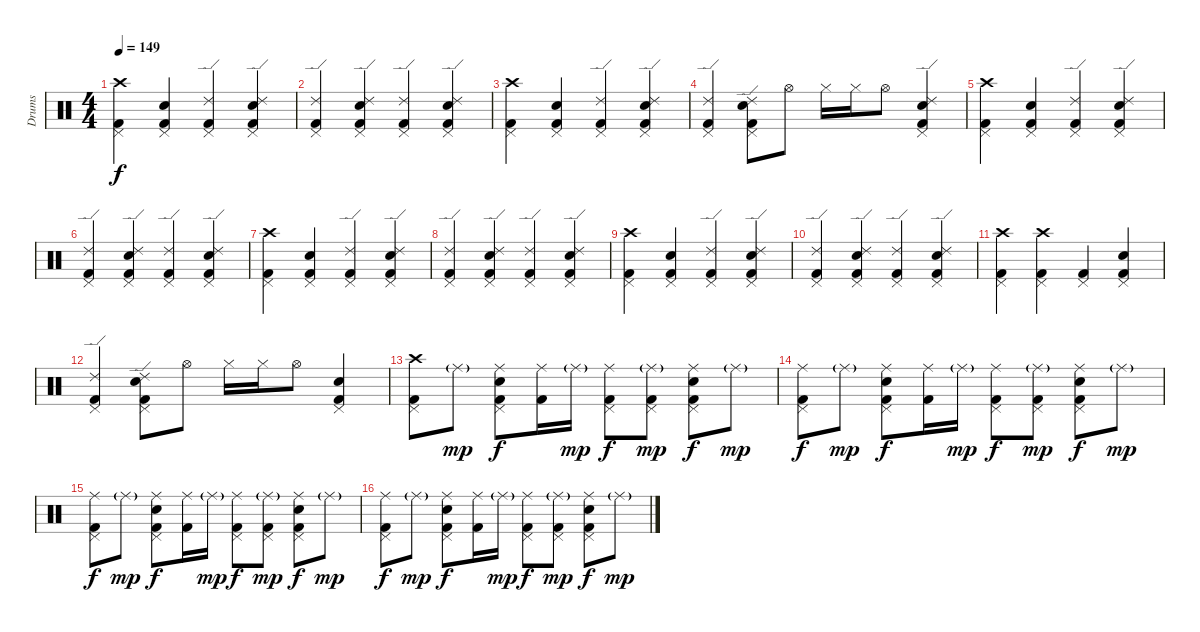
\track ("Drums" "Drums") {instrument percussion}
\staff {score}
\articulation defaults
\ts (4 4)
\tempo 149
\clef neutral
\ks c
("Crash high (hit)" "Kick (hit) 2" "Pedal Hi-Hat (hit)").4{dy f} ("Electric Snare (hit)" "Kick (hit) 2" "Pedal Hi-Hat (hit)").4 ("Ride (edge) 2" "Kick (hit) 2" "Pedal Hi-Hat (hit)").4 ("Ride (edge) 2" "Electric Snare (hit)" "Kick (hit) 2" "Pedal Hi-Hat (hit)").4 |
("Ride (edge) 2" "Kick (hit) 2" "Pedal Hi-Hat (hit)").4 ("Ride (edge) 2" "Electric Snare (hit)" "Kick (hit) 2" "Pedal Hi-Hat (hit)").4 ("Ride (edge) 2" "Kick (hit) 2" "Pedal Hi-Hat (hit)").4 ("Ride (edge) 2" "Electric Snare (hit)" "Kick (hit) 2" "Pedal Hi-Hat (hit)").4 |
("Crash high (hit)" "Kick (hit) 2" "Pedal Hi-Hat (hit)").4 ("Electric Snare (hit)" "Kick (hit) 2" "Pedal Hi-Hat (hit)").4 ("Ride (edge) 2" "Kick (hit) 2" "Pedal Hi-Hat (hit)").4 ("Ride (edge) 2" "Electric Snare (hit)" "Kick (hit) 2" "Pedal Hi-Hat (hit)").4 |
("Ride (edge) 2" "Kick (hit) 2" "Pedal Hi-Hat (hit)").4 ("Ride (edge) 2" "Electric Snare (hit)" "Kick (hit) 2" "Pedal Hi-Hat (hit)").8 "Hi-Hat (open)".8 "Hi-Hat (closed)".16 "Hi-Hat (closed)".16 "Hi-Hat (open)".8 ("Ride (edge) 2" "Electric Snare (hit)" "Kick (hit) 2" "Pedal Hi-Hat (hit)").4 |
("Crash high (hit)" "Kick (hit) 2" "Pedal Hi-Hat (hit)").4 ("Electric Snare (hit)" "Kick (hit) 2" "Pedal Hi-Hat (hit)").4 ("Ride (edge) 2" "Kick (hit) 2" "Pedal Hi-Hat (hit)").4 ("Ride (edge) 2" "Electric Snare (hit)" "Kick (hit) 2" "Pedal Hi-Hat (hit)").4 |
("Ride (edge) 2" "Kick (hit) 2" "Pedal Hi-Hat (hit)").4 ("Ride (edge) 2" "Electric Snare (hit)" "Kick (hit) 2" "Pedal Hi-Hat (hit)").4 ("Ride (edge) 2" "Kick (hit) 2" "Pedal Hi-Hat (hit)").4 ("Ride (edge) 2" "Electric Snare (hit)" "Kick (hit) 2" "Pedal Hi-Hat (hit)").4 |
("Crash high (hit)" "Kick (hit) 2" "Pedal Hi-Hat (hit)").4 ("Electric Snare (hit)" "Kick (hit) 2" "Pedal Hi-Hat (hit)").4 ("Ride (edge) 2" "Kick (hit) 2" "Pedal Hi-Hat (hit)").4 ("Ride (edge) 2" "Electric Snare (hit)" "Kick (hit) 2" "Pedal Hi-Hat (hit)").4 |
("Ride (edge) 2" "Kick (hit) 2" "Pedal Hi-Hat (hit)").4 ("Ride (edge) 2" "Electric Snare (hit)" "Kick (hit) 2" "Pedal Hi-Hat (hit)").4 ("Ride (edge) 2" "Kick (hit) 2" "Pedal Hi-Hat (hit)").4 ("Ride (edge) 2" "Electric Snare (hit)" "Kick (hit) 2" "Pedal Hi-Hat (hit)").4 |
("Crash high (hit)" "Kick (hit) 2" "Pedal Hi-Hat (hit)").4 ("Electric Snare (hit)" "Kick (hit) 2" "Pedal Hi-Hat (hit)").4 ("Ride (edge) 2" "Kick (hit) 2" "Pedal Hi-Hat (hit)").4 ("Ride (edge) 2" "Electric Snare (hit)" "Kick (hit) 2" "Pedal Hi-Hat (hit)").4 |
("Ride (edge) 2" "Kick (hit) 2" "Pedal Hi-Hat (hit)").4 ("Ride (edge) 2" "Electric Snare (hit)" "Kick (hit) 2" "Pedal Hi-Hat (hit)").4 ("Ride (edge) 2" "Kick (hit) 2" "Pedal Hi-Hat (hit)").4 ("Ride (edge) 2" "Electric Snare (hit)" "Kick (hit) 2" "Pedal Hi-Hat (hit)").4 |
("Crash high (hit)" "Kick (hit) 2" "Pedal Hi-Hat (hit)").4 ("Crash high (hit)" "Kick (hit) 2" "Pedal Hi-Hat (hit)").4 ("Kick (hit) 2" "Pedal Hi-Hat (hit)").4 ("Electric Snare (hit)" "Kick (hit) 2" "Pedal Hi-Hat (hit)").4 |
("Ride (edge) 2" "Kick (hit) 2" "Pedal Hi-Hat (hit)").4 ("Ride (edge) 2" "Electric Snare (hit)" "Kick (hit) 2" "Pedal Hi-Hat (hit)").8 "Hi-Hat (open)".8 "Hi-Hat (closed)".16 "Hi-Hat (closed)".16 "Hi-Hat (open)".8 ("Electric Snare (hit)" "Kick (hit) 2" "Pedal Hi-Hat (hit)").4 |
("Crash high (hit)" "Kick (hit) 2" "Pedal Hi-Hat (hit)").8 "Ride (middle)"{g}.8{dy mp} ("Ride (middle)" "Electric Snare (hit)" "Kick (hit) 2" "Pedal Hi-Hat (hit)").8{dy f} ("Ride (middle)" "Kick (hit) 2").16 "Ride (middle)"{g}.16{dy mp} ("Ride (middle)" "Kick (hit) 2" "Pedal Hi-Hat (hit)").8{dy f} ("Ride (middle)"{g} "Kick (hit) 2" "Pedal Hi-Hat (hit)").8{dy mp} ("Ride (middle)" "Electric Snare (hit)" "Kick (hit) 2" "Pedal Hi-Hat (hit)").8{dy f} "Ride (middle)"{g}.8{dy mp} |
("Ride (middle)" "Kick (hit) 2" "Pedal Hi-Hat (hit)").8{dy f} "Ride (middle)"{g}.8{dy mp} ("Ride (middle)" "Electric Snare (hit)" "Kick (hit) 2" "Pedal Hi-Hat (hit)").8{dy f} ("Ride (middle)" "Kick (hit) 2").16 "Ride (middle)"{g}.16{dy mp} ("Ride (middle)" "Kick (hit) 2" "Pedal Hi-Hat (hit)").8{dy f} ("Ride (middle)"{g} "Kick (hit) 2" "Pedal Hi-Hat (hit)").8{dy mp} ("Ride (middle)" "Electric Snare (hit)" "Kick (hit) 2" "Pedal Hi-Hat (hit)").8{dy f} "Ride (middle)"{g}.8{dy mp} |
("Ride (middle)" "Kick (hit) 2" "Pedal Hi-Hat (hit)").8{dy f} "Ride (middle)"{g}.8{dy mp} ("Ride (middle)" "Electric Snare (hit)" "Kick (hit) 2" "Pedal Hi-Hat (hit)").8{dy f} ("Ride (middle)" "Kick (hit) 2").16 "Ride (middle)"{g}.16{dy mp} ("Ride (middle)" "Kick (hit) 2" "Pedal Hi-Hat (hit)").8{dy f} ("Ride (middle)"{g} "Kick (hit) 2" "Pedal Hi-Hat (hit)").8{dy mp} ("Ride (middle)" "Electric Snare (hit)" "Kick (hit) 2" "Pedal Hi-Hat (hit)").8{dy f} "Ride (middle)"{g}.8{dy mp} |
("Ride (middle)" "Kick (hit) 2" "Pedal Hi-Hat (hit)").8{dy f} "Ride (middle)"{g}.8{dy mp} ("Ride (middle)" "Electric Snare (hit)" "Kick (hit) 2" "Pedal Hi-Hat (hit)").8{dy f} ("Ride (middle)" "Kick (hit) 2").16 "Ride (middle)"{g}.16{dy mp} ("Ride (middle)" "Kick (hit) 2" "Pedal Hi-Hat (hit)").8{dy f} ("Ride (middle)"{g} "Kick (hit) 2" "Pedal Hi-Hat (hit)").8{dy mp} ("Ride (middle)" "Electric Snare (hit)" "Kick (hit) 2" "Pedal Hi-Hat (hit)").8{dy f} "Ride (middle)"{g}.8{dy mp}
